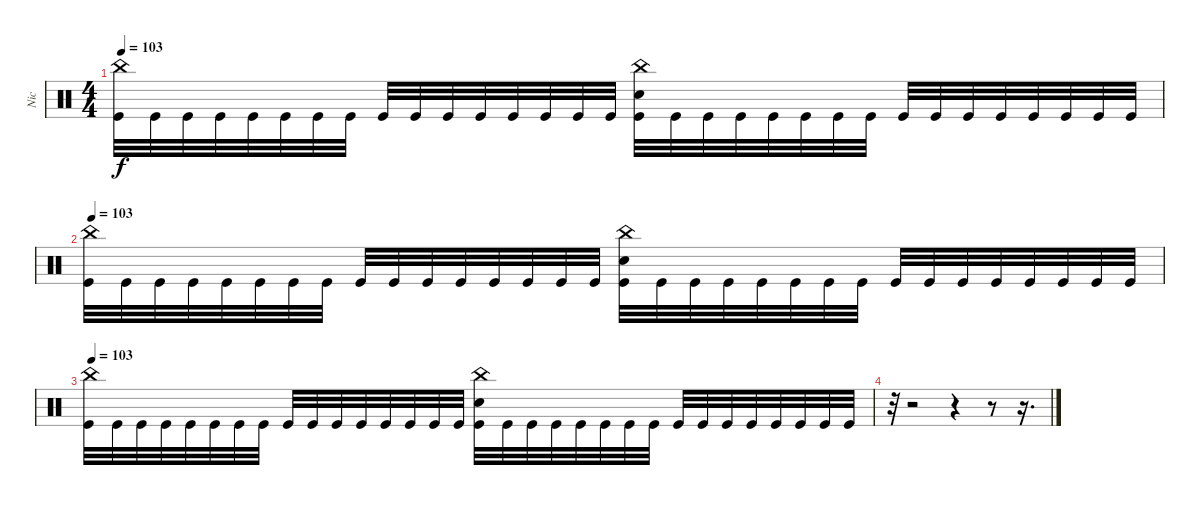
\track ("Nic" "Nic") {instrument percussion}
\staff {score}
\articulation defaults
\ts (4 4)
\tempo 103
\clef neutral
\ks c
("China (hit)" "Kick (hit)").32{dy f} "Kick (hit)".32 "Kick (hit)".32 "Kick (hit)".32 "Kick (hit)".32 "Kick (hit)".32 "Kick (hit)".32 "Kick (hit)".32 "Kick (hit)".32 "Kick (hit)".32 "Kick (hit)".32 "Kick (hit)".32 "Kick (hit)".32 "Kick (hit)".32 "Kick (hit)".32 "Kick (hit)".32 ("China (hit)" "Snare (hit) 2" "Kick (hit)").32 "Kick (hit)".32 "Kick (hit)".32 "Kick (hit)".32 "Kick (hit)".32 "Kick (hit)".32 "Kick (hit)".32 "Kick (hit)".32 "Kick (hit)".32 "Kick (hit)".32 "Kick (hit)".32 "Kick (hit)".32 "Kick (hit)".32 "Kick (hit)".32 "Kick (hit)".32 "Kick (hit)".32 |
\tempo 103
("China (hit)" "Kick (hit)").32 "Kick (hit)".32 "Kick (hit)".32 "Kick (hit)".32 "Kick (hit)".32 "Kick (hit)".32 "Kick (hit)".32 "Kick (hit)".32 "Kick (hit)".32 "Kick (hit)".32 "Kick (hit)".32 "Kick (hit)".32 "Kick (hit)".32 "Kick (hit)".32 "Kick (hit)".32 "Kick (hit)".32 ("China (hit)" "Snare (hit) 2" "Kick (hit)").32 "Kick (hit)".32 "Kick (hit)".32 "Kick (hit)".32 "Kick (hit)".32 "Kick (hit)".32 "Kick (hit)".32 "Kick (hit)".32 "Kick (hit)".32 "Kick (hit)".32 "Kick (hit)".32 "Kick (hit)".32 "Kick (hit)".32 "Kick (hit)".32 "Kick (hit)".32 "Kick (hit)".32 |
\tempo 103
("China (hit)" "Kick (hit)").32 "Kick (hit)".32 "Kick (hit)".32 "Kick (hit)".32 "Kick (hit)".32 "Kick (hit)".32 "Kick (hit)".32 "Kick (hit)".32 "Kick (hit)".32 "Kick (hit)".32 "Kick (hit)".32 "Kick (hit)".32 "Kick (hit)".32 "Kick (hit)".32 "Kick (hit)".32 "Kick (hit)".32 ("China (hit)" "Snare (hit) 2" "Kick (hit)").32 "Kick (hit)".32 "Kick (hit)".32 "Kick (hit)".32 "Kick (hit)".32 "Kick (hit)".32 "Kick (hit)".32 "Kick (hit)".32 "Kick (hit)".32 "Kick (hit)".32 "Kick (hit)".32 "Kick (hit)".32 "Kick (hit)".32 "Kick (hit)".32 "Kick (hit)".32 "Kick (hit)".32 |
r.32 r.2 r.4 r.8 r.16{d}
